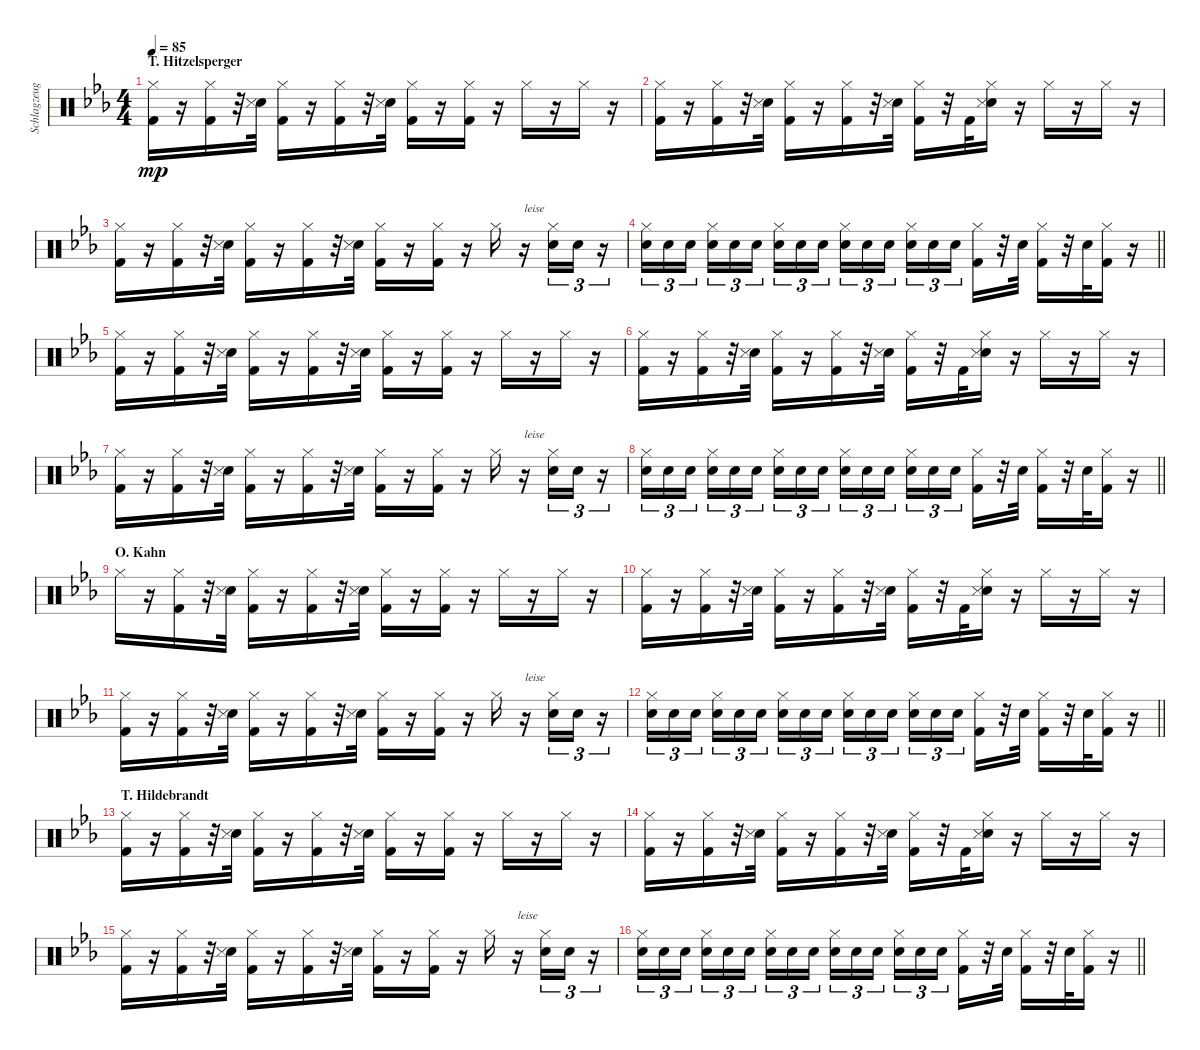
\track ("Schlagzeug" "Schlagzeug") {instrument percussion}
\staff {score}
\articulation defaults
\ts (4 4)
\section ("" "T. Hitzelsperger")
\tempo 85
\clef neutral
\ks cminor
("Hi-Hat (closed)" "Kick (hit) 2").16{dy mp} r.16 ("Hi-Hat (closed)" "Kick (hit) 2").16 r.32 ("Electric Snare (hit)" "Snare (side stick) 3").32 ("Hi-Hat (closed)" "Kick (hit) 2").16 r.16 ("Hi-Hat (closed)" "Kick (hit) 2").16 r.32 ("Electric Snare (hit)" "Snare (side stick) 3").32 ("Hi-Hat (closed)" "Kick (hit) 2").16 r.16 ("Hi-Hat (closed)" "Kick (hit) 2").16 r.16 "Hi-Hat (closed)".16 r.16 "Hi-Hat (closed)".16 r.16 |
("Hi-Hat (closed)" "Kick (hit) 2").16 r.16 ("Hi-Hat (closed)" "Kick (hit) 2").16 r.32 ("Electric Snare (hit)" "Snare (side stick) 3").32 ("Hi-Hat (closed)" "Kick (hit) 2").16 r.16 ("Hi-Hat (closed)" "Kick (hit) 2").16 r.32 ("Electric Snare (hit)" "Snare (side stick) 3").32 ("Hi-Hat (closed)" "Kick (hit) 2").16 r.32 "Kick (hit) 2".32 ("Hi-Hat (closed)" "Electric Snare (hit)" "Snare (side stick) 3").16 r.16 "Hi-Hat (closed)".16 r.16 "Hi-Hat (closed)".16 r.16 |
("Hi-Hat (closed)" "Kick (hit) 2").16 r.16 ("Hi-Hat (closed)" "Kick (hit) 2").16 r.32 ("Electric Snare (hit)" "Snare (side stick) 3").32 ("Hi-Hat (closed)" "Kick (hit) 2").16 r.16 ("Hi-Hat (closed)" "Kick (hit) 2").16 r.32 ("Electric Snare (hit)" "Snare (side stick) 3").32 ("Hi-Hat (closed)" "Kick (hit) 2").16 r.16 ("Hi-Hat (closed)" "Kick (hit) 2").16 r.16 "Hi-Hat (closed)".16 r.16{txt "leise" volume 5} ("Hi-Hat (closed)" "Electric Snare (hit)").16{tu (3 2)} "Electric Snare (hit)".16{tu (3 2)} r.16{tu (3 2)} |
\barLineRight lightlight
("Hi-Hat (closed)" "Electric Snare (hit)").16{tu (3 2) volume 15} "Electric Snare (hit)".16{tu (3 2)} "Electric Snare (hit)".16{tu (3 2) beam splitsecondary} ("Hi-Hat (closed)" "Electric Snare (hit)").16{tu (3 2)} "Electric Snare (hit)".16{tu (3 2)} "Electric Snare (hit)".16{tu (3 2)} ("Hi-Hat (closed)" "Electric Snare (hit)").16{tu (3 2)} "Electric Snare (hit)".16{tu (3 2)} "Electric Snare (hit)".16{tu (3 2) beam splitsecondary} ("Hi-Hat (closed)" "Electric Snare (hit)").16{tu (3 2)} "Electric Snare (hit)".16{tu (3 2)} "Electric Snare (hit)".16{tu (3 2)} ("Hi-Hat (closed)" "Electric Snare (hit)").16{tu (3 2)} "Electric Snare (hit)".16{tu (3 2)} "Electric Snare (hit)".16{tu (3 2) beam splitsecondary} ("Hi-Hat (closed)" "Kick (hit) 2").16 r.32 "Electric Snare (hit)".32 ("Hi-Hat (closed)" "Kick (hit) 2").16 r.32 "Electric Snare (hit)".32 ("Hi-Hat (closed)" "Kick (hit) 2").16 r.16 |
("Hi-Hat (closed)" "Kick (hit) 2").16 r.16 ("Hi-Hat (closed)" "Kick (hit) 2").16 r.32 ("Electric Snare (hit)" "Snare (side stick) 3").32 ("Hi-Hat (closed)" "Kick (hit) 2").16 r.16 ("Hi-Hat (closed)" "Kick (hit) 2").16 r.32 ("Electric Snare (hit)" "Snare (side stick) 3").32 ("Hi-Hat (closed)" "Kick (hit) 2").16 r.16 ("Hi-Hat (closed)" "Kick (hit) 2").16 r.16 "Hi-Hat (closed)".16 r.16 "Hi-Hat (closed)".16 r.16 |
("Hi-Hat (closed)" "Kick (hit) 2").16 r.16 ("Hi-Hat (closed)" "Kick (hit) 2").16 r.32 ("Electric Snare (hit)" "Snare (side stick) 3").32 ("Hi-Hat (closed)" "Kick (hit) 2").16 r.16 ("Hi-Hat (closed)" "Kick (hit) 2").16 r.32 ("Electric Snare (hit)" "Snare (side stick) 3").32 ("Hi-Hat (closed)" "Kick (hit) 2").16 r.32 "Kick (hit) 2".32 ("Hi-Hat (closed)" "Electric Snare (hit)" "Snare (side stick) 3").16 r.16 "Hi-Hat (closed)".16 r.16 "Hi-Hat (closed)".16 r.16 |
("Hi-Hat (closed)" "Kick (hit) 2").16 r.16 ("Hi-Hat (closed)" "Kick (hit) 2").16 r.32 ("Electric Snare (hit)" "Snare (side stick) 3").32 ("Hi-Hat (closed)" "Kick (hit) 2").16 r.16 ("Hi-Hat (closed)" "Kick (hit) 2").16 r.32 ("Electric Snare (hit)" "Snare (side stick) 3").32 ("Hi-Hat (closed)" "Kick (hit) 2").16 r.16 ("Hi-Hat (closed)" "Kick (hit) 2").16 r.16 "Hi-Hat (closed)".16 r.16{txt "leise" volume 5} ("Hi-Hat (closed)" "Electric Snare (hit)").16{tu (3 2)} "Electric Snare (hit)".16{tu (3 2)} r.16{tu (3 2)} |
\barLineRight lightlight
("Hi-Hat (closed)" "Electric Snare (hit)").16{tu (3 2) volume 15} "Electric Snare (hit)".16{tu (3 2)} "Electric Snare (hit)".16{tu (3 2) beam splitsecondary} ("Hi-Hat (closed)" "Electric Snare (hit)").16{tu (3 2)} "Electric Snare (hit)".16{tu (3 2)} "Electric Snare (hit)".16{tu (3 2)} ("Hi-Hat (closed)" "Electric Snare (hit)").16{tu (3 2)} "Electric Snare (hit)".16{tu (3 2)} "Electric Snare (hit)".16{tu (3 2) beam splitsecondary} ("Hi-Hat (closed)" "Electric Snare (hit)").16{tu (3 2)} "Electric Snare (hit)".16{tu (3 2)} "Electric Snare (hit)".16{tu (3 2)} ("Hi-Hat (closed)" "Electric Snare (hit)").16{tu (3 2)} "Electric Snare (hit)".16{tu (3 2)} "Electric Snare (hit)".16{tu (3 2) beam splitsecondary} ("Hi-Hat (closed)" "Kick (hit) 2").16 r.32 "Electric Snare (hit)".32 ("Hi-Hat (closed)" "Kick (hit) 2").16 r.32 "Electric Snare (hit)".32 ("Hi-Hat (closed)" "Kick (hit) 2").16 r.16 |
\section ("" "O. Kahn")
"Hi-Hat (closed)".16 r.16 ("Hi-Hat (closed)" "Kick (hit) 2").16 r.32 ("Electric Snare (hit)" "Snare (side stick) 3").32 ("Hi-Hat (closed)" "Kick (hit) 2").16 r.16 ("Hi-Hat (closed)" "Kick (hit) 2").16 r.32 ("Electric Snare (hit)" "Snare (side stick) 3").32 ("Hi-Hat (closed)" "Kick (hit) 2").16 r.16 ("Hi-Hat (closed)" "Kick (hit) 2").16 r.16 "Hi-Hat (closed)".16 r.16 "Hi-Hat (closed)".16 r.16 |
("Hi-Hat (closed)" "Kick (hit) 2").16 r.16 ("Hi-Hat (closed)" "Kick (hit) 2").16 r.32 ("Electric Snare (hit)" "Snare (side stick) 3").32 ("Hi-Hat (closed)" "Kick (hit) 2").16 r.16 ("Hi-Hat (closed)" "Kick (hit) 2").16 r.32 ("Electric Snare (hit)" "Snare (side stick) 3").32 ("Hi-Hat (closed)" "Kick (hit) 2").16 r.32 "Kick (hit) 2".32 ("Hi-Hat (closed)" "Electric Snare (hit)" "Snare (side stick) 3").16 r.16 "Hi-Hat (closed)".16 r.16 "Hi-Hat (closed)".16 r.16 |
("Hi-Hat (closed)" "Kick (hit) 2").16 r.16 ("Hi-Hat (closed)" "Kick (hit) 2").16 r.32 ("Electric Snare (hit)" "Snare (side stick) 3").32 ("Hi-Hat (closed)" "Kick (hit) 2").16 r.16 ("Hi-Hat (closed)" "Kick (hit) 2").16 r.32 ("Electric Snare (hit)" "Snare (side stick) 3").32 ("Hi-Hat (closed)" "Kick (hit) 2").16 r.16 ("Hi-Hat (closed)" "Kick (hit) 2").16 r.16 "Hi-Hat (closed)".16 r.16{txt "leise" volume 5} ("Hi-Hat (closed)" "Electric Snare (hit)").16{tu (3 2)} "Electric Snare (hit)".16{tu (3 2)} r.16{tu (3 2)} |
\barLineRight lightlight
("Hi-Hat (closed)" "Electric Snare (hit)").16{tu (3 2) volume 15} "Electric Snare (hit)".16{tu (3 2)} "Electric Snare (hit)".16{tu (3 2) beam splitsecondary} ("Hi-Hat (closed)" "Electric Snare (hit)").16{tu (3 2)} "Electric Snare (hit)".16{tu (3 2)} "Electric Snare (hit)".16{tu (3 2)} ("Hi-Hat (closed)" "Electric Snare (hit)").16{tu (3 2)} "Electric Snare (hit)".16{tu (3 2)} "Electric Snare (hit)".16{tu (3 2) beam splitsecondary} ("Hi-Hat (closed)" "Electric Snare (hit)").16{tu (3 2)} "Electric Snare (hit)".16{tu (3 2)} "Electric Snare (hit)".16{tu (3 2)} ("Hi-Hat (closed)" "Electric Snare (hit)").16{tu (3 2)} "Electric Snare (hit)".16{tu (3 2)} "Electric Snare (hit)".16{tu (3 2) beam splitsecondary} ("Hi-Hat (closed)" "Kick (hit) 2").16 r.32 "Electric Snare (hit)".32 ("Hi-Hat (closed)" "Kick (hit) 2").16 r.32 "Electric Snare (hit)".32 ("Hi-Hat (closed)" "Kick (hit) 2").16 r.16 |
\section ("" "T. Hildebrandt")
("Hi-Hat (closed)" "Kick (hit) 2").16 r.16 ("Hi-Hat (closed)" "Kick (hit) 2").16 r.32 ("Electric Snare (hit)" "Snare (side stick) 3").32 ("Hi-Hat (closed)" "Kick (hit) 2").16 r.16 ("Hi-Hat (closed)" "Kick (hit) 2").16 r.32 ("Electric Snare (hit)" "Snare (side stick) 3").32 ("Hi-Hat (closed)" "Kick (hit) 2").16 r.16 ("Hi-Hat (closed)" "Kick (hit) 2").16 r.16 "Hi-Hat (closed)".16 r.16 "Hi-Hat (closed)".16 r.16 |
("Hi-Hat (closed)" "Kick (hit) 2").16 r.16 ("Hi-Hat (closed)" "Kick (hit) 2").16 r.32 ("Electric Snare (hit)" "Snare (side stick) 3").32 ("Hi-Hat (closed)" "Kick (hit) 2").16 r.16 ("Hi-Hat (closed)" "Kick (hit) 2").16 r.32 ("Electric Snare (hit)" "Snare (side stick) 3").32 ("Hi-Hat (closed)" "Kick (hit) 2").16 r.32 "Kick (hit) 2".32 ("Hi-Hat (closed)" "Electric Snare (hit)" "Snare (side stick) 3").16 r.16 "Hi-Hat (closed)".16 r.16 "Hi-Hat (closed)".16 r.16 |
("Hi-Hat (closed)" "Kick (hit) 2").16 r.16 ("Hi-Hat (closed)" "Kick (hit) 2").16 r.32 ("Electric Snare (hit)" "Snare (side stick) 3").32 ("Hi-Hat (closed)" "Kick (hit) 2").16 r.16 ("Hi-Hat (closed)" "Kick (hit) 2").16 r.32 ("Electric Snare (hit)" "Snare (side stick) 3").32 ("Hi-Hat (closed)" "Kick (hit) 2").16 r.16 ("Hi-Hat (closed)" "Kick (hit) 2").16 r.16 "Hi-Hat (closed)".16 r.16{txt "leise" volume 5} ("Hi-Hat (closed)" "Electric Snare (hit)").16{tu (3 2)} "Electric Snare (hit)".16{tu (3 2)} r.16{tu (3 2)} |
\barLineRight lightlight
("Hi-Hat (closed)" "Electric Snare (hit)").16{tu (3 2) volume 15} "Electric Snare (hit)".16{tu (3 2)} "Electric Snare (hit)".16{tu (3 2) beam splitsecondary} ("Hi-Hat (closed)" "Electric Snare (hit)").16{tu (3 2)} "Electric Snare (hit)".16{tu (3 2)} "Electric Snare (hit)".16{tu (3 2)} ("Hi-Hat (closed)" "Electric Snare (hit)").16{tu (3 2)} "Electric Snare (hit)".16{tu (3 2)} "Electric Snare (hit)".16{tu (3 2) beam splitsecondary} ("Hi-Hat (closed)" "Electric Snare (hit)").16{tu (3 2)} "Electric Snare (hit)".16{tu (3 2)} "Electric Snare (hit)".16{tu (3 2)} ("Hi-Hat (closed)" "Electric Snare (hit)").16{tu (3 2)} "Electric Snare (hit)".16{tu (3 2)} "Electric Snare (hit)".16{tu (3 2) beam splitsecondary} ("Hi-Hat (closed)" "Kick (hit) 2").16 r.32 "Electric Snare (hit)".32 ("Hi-Hat (closed)" "Kick (hit) 2").16 r.32 "Electric Snare (hit)".32 ("Hi-Hat (closed)" "Kick (hit) 2").16 r.16
